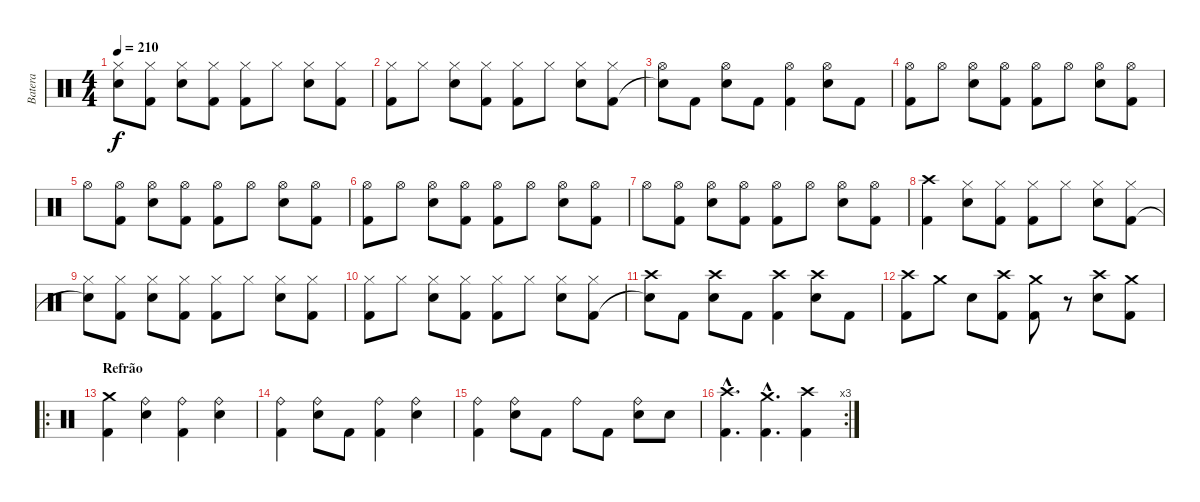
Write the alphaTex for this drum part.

\track ("Batera" "Batera") {instrument percussion}
\staff {score}
\articulation defaults
\ts (4 4)
\tempo 210
\clef neutral
\ks c
("Hi-Hat (closed)" "Snare (hit)"{t}).8{dy f} ("Hi-Hat (closed)" "Kick (hit) 2").8 ("Hi-Hat (closed)" "Electric Snare (hit)").8 ("Hi-Hat (closed)" "Kick (hit) 2").8 ("Hi-Hat (closed)" "Kick (hit) 2").8 "Hi-Hat (closed)".8 ("Hi-Hat (closed)" "Electric Snare (hit)").8 ("Hi-Hat (closed)" "Kick (hit) 2").8 |
("Hi-Hat (closed)" "Kick (hit) 2").8 "Hi-Hat (closed)".8 ("Hi-Hat (closed)" "Electric Snare (hit)").8 ("Hi-Hat (closed)" "Kick (hit) 2").8 ("Hi-Hat (closed)" "Kick (hit) 2").8 "Hi-Hat (closed)".8 ("Hi-Hat (closed)" "Electric Snare (hit)").8 ("Hi-Hat (closed)" "Kick (hit) 2").8 |
("Hi-Hat (open)" "Snare (hit)"{t}).8 "Kick (hit) 2".8 ("Hi-Hat (open)" "Electric Snare (hit)").8 "Kick (hit) 2".8 ("Hi-Hat (open)" "Kick (hit) 2").4 ("Hi-Hat (open)" "Electric Snare (hit)").8 "Kick (hit) 2".8 |
("Hi-Hat (open)" "Kick (hit) 2").8 "Hi-Hat (open)".8 ("Hi-Hat (open)" "Electric Snare (hit)").8 ("Hi-Hat (open)" "Kick (hit) 2").8 ("Hi-Hat (open)" "Kick (hit) 2").8 "Hi-Hat (open)".8 ("Hi-Hat (open)" "Electric Snare (hit)").8 ("Hi-Hat (open)" "Kick (hit) 2").8 |
"Hi-Hat (open)".8 ("Hi-Hat (open)" "Kick (hit) 2").8 ("Hi-Hat (open)" "Electric Snare (hit)").8 ("Hi-Hat (open)" "Kick (hit) 2").8 ("Hi-Hat (open)" "Kick (hit) 2").8 "Hi-Hat (open)".8 ("Hi-Hat (open)" "Electric Snare (hit)").8 ("Hi-Hat (open)" "Kick (hit) 2").8 |
("Hi-Hat (open)" "Kick (hit) 2").8 "Hi-Hat (open)".8 ("Hi-Hat (open)" "Electric Snare (hit)").8 ("Hi-Hat (open)" "Kick (hit) 2").8 ("Hi-Hat (open)" "Kick (hit) 2").8 "Hi-Hat (open)".8 ("Hi-Hat (open)" "Electric Snare (hit)").8 ("Hi-Hat (open)" "Kick (hit) 2").8 |
"Hi-Hat (open)".8 ("Hi-Hat (open)" "Kick (hit) 2").8 ("Hi-Hat (open)" "Electric Snare (hit)").8 ("Hi-Hat (open)" "Kick (hit) 2").8 ("Hi-Hat (open)" "Kick (hit) 2").8 "Hi-Hat (open)".8 ("Hi-Hat (open)" "Electric Snare (hit)").8 ("Hi-Hat (open)" "Kick (hit) 2").8 |
("Crash high (hit)" "Kick (hit) 2").4 ("Hi-Hat (closed)" "Electric Snare (hit)").8 ("Hi-Hat (closed)" "Kick (hit) 2").8 ("Hi-Hat (closed)" "Kick (hit) 2").8 "Hi-Hat (closed)".8 ("Hi-Hat (closed)" "Electric Snare (hit)").8 ("Hi-Hat (closed)" "Kick (hit) 2").8 |
("Hi-Hat (closed)" "Snare (hit)"{t}).8 ("Hi-Hat (closed)" "Kick (hit) 2").8 ("Hi-Hat (closed)" "Electric Snare (hit)").8 ("Hi-Hat (closed)" "Kick (hit) 2").8 ("Hi-Hat (closed)" "Kick (hit) 2").8 "Hi-Hat (closed)".8 ("Hi-Hat (closed)" "Electric Snare (hit)").8 ("Hi-Hat (closed)" "Kick (hit) 2").8 |
("Hi-Hat (closed)" "Kick (hit) 2").8 "Hi-Hat (closed)".8 ("Hi-Hat (closed)" "Electric Snare (hit)").8 ("Hi-Hat (closed)" "Kick (hit) 2").8 ("Hi-Hat (closed)" "Kick (hit) 2").8 "Hi-Hat (closed)".8 ("Hi-Hat (closed)" "Electric Snare (hit)").8 ("Hi-Hat (closed)" "Kick (hit) 2").8 |
("Crash high (hit)" "Snare (hit)"{t}).8 "Kick (hit) 2".8 ("Crash high (hit)" "Electric Snare (hit)").8 "Kick (hit) 2".8 ("Crash high (hit)" "Kick (hit) 2").4 ("Crash high (hit)" "Electric Snare (hit)").8 "Kick (hit) 2".8 |
("Crash high (hit)" "Kick (hit) 2").8 "Crash medium (hit)".8 "Electric Snare (hit)".8 ("Crash high (hit)" "Kick (hit) 2").8 ("Crash medium (hit)" "Kick (hit) 2").8 r.8 ("Crash high (hit)" "Electric Snare (hit)").8 ("Crash medium (hit)" "Kick (hit) 2").8 |
\ro
\section ("" "Refrão")
("Crash medium (hit)" "Kick (hit) 2").4 ("Ride (bell)" "Electric Snare (hit)").4 ("Ride (bell)" "Kick (hit) 2").4 ("Ride (bell)" "Electric Snare (hit)").4 |
("Ride (bell)" "Kick (hit) 2").4 ("Ride (bell)" "Electric Snare (hit)").8 "Kick (hit) 2".8 ("Ride (bell)" "Kick (hit) 2").4 ("Ride (bell)" "Electric Snare (hit)").4 |
("Ride (bell)" "Kick (hit) 2").4 ("Ride (bell)" "Electric Snare (hit)").8 "Kick (hit) 2".8 "Ride (bell)".8 "Kick (hit) 2".8 ("Ride (bell)" "Electric Snare (hit)").8 "Electric Snare (hit)".8 |
\rc 3
("Crash high (hit)"{hac} "Kick (hit) 2"{hac}).4{d} ("Crash medium (hit)"{hac} "Kick (hit) 2"{hac}).4{d} ("Crash high (hit)" "Kick (hit) 2").4
